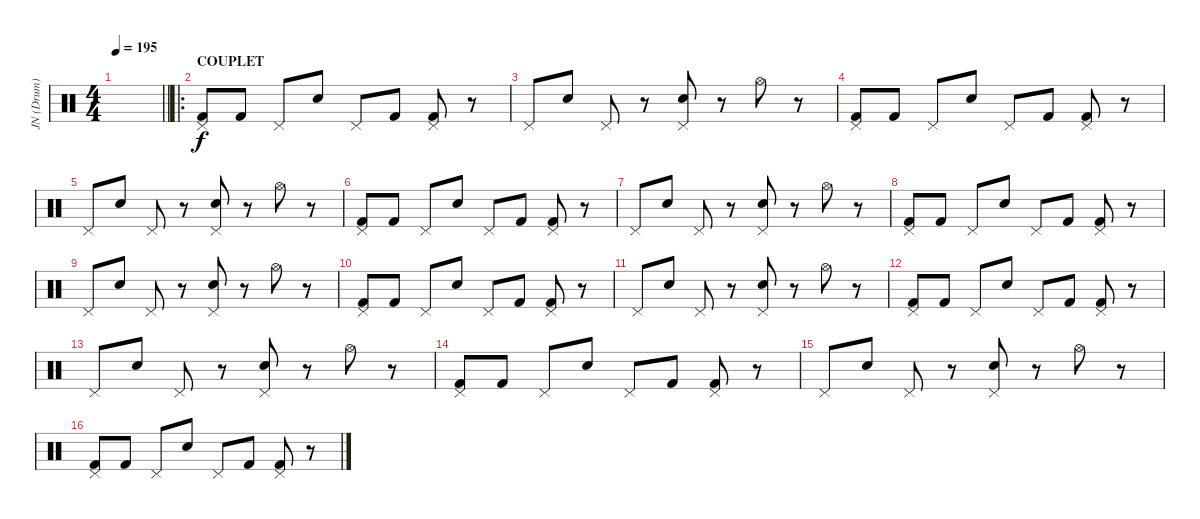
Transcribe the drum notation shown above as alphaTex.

\track ("JN (Drum)" "JN (Drum)") {instrument percussion}
\staff {score}
\articulation defaults
\ts (4 4)
\tempo 195
\clef neutral
\barLineRight lightlight
\ks c
|
\ro
\section ("" "COUPLET")
("Pedal Hi-Hat (hit)" "Kick (hit) 2").8 "Kick (hit) 2".8 "Pedal Hi-Hat (hit)".8 "Hand Clap (hit)".8 "Pedal Hi-Hat (hit)".8 "Kick (hit) 2".8 ("Pedal Hi-Hat (hit)" "Kick (hit) 2").8 r.8 |
"Pedal Hi-Hat (hit)".8 "Hand Clap (hit)".8 "Pedal Hi-Hat (hit)".8 r.8 ("Pedal Hi-Hat (hit)" "Hand Clap (hit)").8 r.8 "Hi-Hat (open)".8 r.8 |
("Pedal Hi-Hat (hit)" "Kick (hit) 2").8 "Kick (hit) 2".8 "Pedal Hi-Hat (hit)".8 "Hand Clap (hit)".8 "Pedal Hi-Hat (hit)".8 "Kick (hit) 2".8 ("Pedal Hi-Hat (hit)" "Kick (hit) 2").8 r.8 |
"Pedal Hi-Hat (hit)".8 "Hand Clap (hit)".8 "Pedal Hi-Hat (hit)".8 r.8 ("Pedal Hi-Hat (hit)" "Hand Clap (hit)").8 r.8 "Hi-Hat (open)".8 r.8 |
("Pedal Hi-Hat (hit)" "Kick (hit) 2").8 "Kick (hit) 2".8 "Pedal Hi-Hat (hit)".8 "Hand Clap (hit)".8 "Pedal Hi-Hat (hit)".8 "Kick (hit) 2".8 ("Pedal Hi-Hat (hit)" "Kick (hit) 2").8 r.8 |
"Pedal Hi-Hat (hit)".8 "Hand Clap (hit)".8 "Pedal Hi-Hat (hit)".8 r.8 ("Pedal Hi-Hat (hit)" "Hand Clap (hit)").8 r.8 "Hi-Hat (open)".8 r.8 |
("Pedal Hi-Hat (hit)" "Kick (hit) 2").8 "Kick (hit) 2".8 "Pedal Hi-Hat (hit)".8 "Hand Clap (hit)".8 "Pedal Hi-Hat (hit)".8 "Kick (hit) 2".8 ("Pedal Hi-Hat (hit)" "Kick (hit) 2").8 r.8 |
"Pedal Hi-Hat (hit)".8 "Hand Clap (hit)".8 "Pedal Hi-Hat (hit)".8 r.8 ("Pedal Hi-Hat (hit)" "Hand Clap (hit)").8 r.8 "Hi-Hat (open)".8 r.8 |
("Pedal Hi-Hat (hit)" "Kick (hit) 2").8 "Kick (hit) 2".8 "Pedal Hi-Hat (hit)".8 "Hand Clap (hit)".8 "Pedal Hi-Hat (hit)".8 "Kick (hit) 2".8 ("Pedal Hi-Hat (hit)" "Kick (hit) 2").8 r.8 |
"Pedal Hi-Hat (hit)".8 "Hand Clap (hit)".8 "Pedal Hi-Hat (hit)".8 r.8 ("Pedal Hi-Hat (hit)" "Hand Clap (hit)").8 r.8 "Hi-Hat (open)".8 r.8 |
("Pedal Hi-Hat (hit)" "Kick (hit) 2").8 "Kick (hit) 2".8 "Pedal Hi-Hat (hit)".8 "Hand Clap (hit)".8 "Pedal Hi-Hat (hit)".8 "Kick (hit) 2".8 ("Pedal Hi-Hat (hit)" "Kick (hit) 2").8 r.8 |
"Pedal Hi-Hat (hit)".8 "Hand Clap (hit)".8 "Pedal Hi-Hat (hit)".8 r.8 ("Pedal Hi-Hat (hit)" "Hand Clap (hit)").8 r.8 "Hi-Hat (open)".8 r.8 |
("Pedal Hi-Hat (hit)" "Kick (hit) 2").8 "Kick (hit) 2".8 "Pedal Hi-Hat (hit)".8 "Hand Clap (hit)".8 "Pedal Hi-Hat (hit)".8 "Kick (hit) 2".8 ("Pedal Hi-Hat (hit)" "Kick (hit) 2").8 r.8 |
"Pedal Hi-Hat (hit)".8 "Hand Clap (hit)".8 "Pedal Hi-Hat (hit)".8 r.8 ("Pedal Hi-Hat (hit)" "Hand Clap (hit)").8 r.8 "Hi-Hat (open)".8 r.8 |
("Pedal Hi-Hat (hit)" "Kick (hit) 2").8 "Kick (hit) 2".8 "Pedal Hi-Hat (hit)".8 "Hand Clap (hit)".8 "Pedal Hi-Hat (hit)".8 "Kick (hit) 2".8 ("Pedal Hi-Hat (hit)" "Kick (hit) 2").8 r.8
